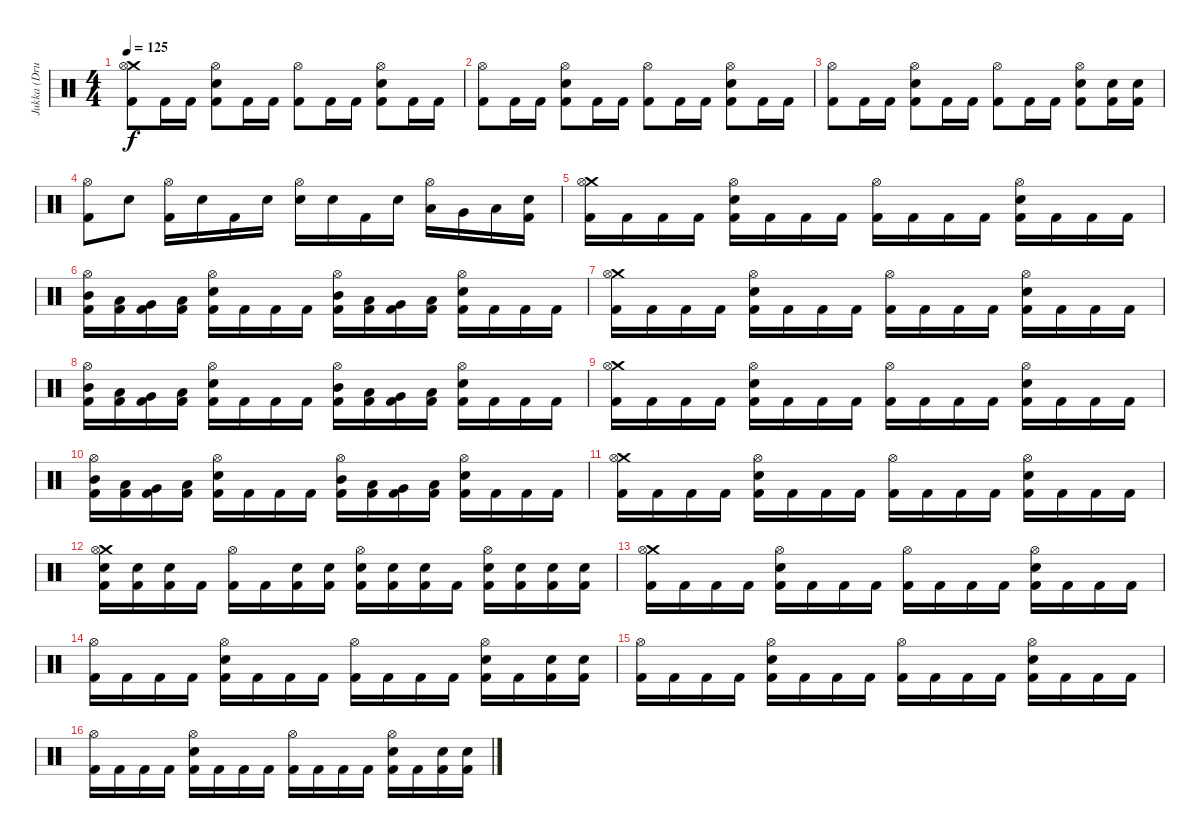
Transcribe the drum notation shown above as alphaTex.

\track ("Jukka (Drums)" "Jukka (Dru") {instrument percussion}
\staff {score}
\articulation defaults
\ts (4 4)
\tempo 125
\clef neutral
\ks c
("Crash medium (hit)" "Hi-Hat (open)" "Kick (hit) 2").8{dy f} "Kick (hit) 2".16 "Kick (hit) 2".16 ("Hi-Hat (open)" "Electric Snare (hit)" "Kick (hit) 2").8 "Kick (hit) 2".16 "Kick (hit) 2".16 ("Hi-Hat (open)" "Kick (hit) 2").8 "Kick (hit) 2".16 "Kick (hit) 2".16 ("Hi-Hat (open)" "Electric Snare (hit)" "Kick (hit) 2").8 "Kick (hit) 2".16 "Kick (hit) 2".16 |
("Hi-Hat (open)" "Kick (hit) 2").8 "Kick (hit) 2".16 "Kick (hit) 2".16 ("Hi-Hat (open)" "Electric Snare (hit)" "Kick (hit) 2").8 "Kick (hit) 2".16 "Kick (hit) 2".16 ("Hi-Hat (open)" "Kick (hit) 2").8 "Kick (hit) 2".16 "Kick (hit) 2".16 ("Hi-Hat (open)" "Electric Snare (hit)" "Kick (hit) 2").8 "Kick (hit) 2".16 "Kick (hit) 2".16 |
("Hi-Hat (open)" "Kick (hit) 2").8 "Kick (hit) 2".16 "Kick (hit) 2".16 ("Hi-Hat (open)" "Electric Snare (hit)" "Kick (hit) 2").8 "Kick (hit) 2".16 "Kick (hit) 2".16 ("Hi-Hat (open)" "Kick (hit) 2").8 "Kick (hit) 2".16 "Kick (hit) 2".16 ("Hi-Hat (open)" "Electric Snare (hit)" "Kick (hit) 2").8 ("Electric Snare (hit)" "Kick (hit) 2").16 ("Electric Snare (hit)" "Kick (hit) 2").16 |
("Hi-Hat (open)" "Kick (hit) 2").8 "Electric Snare (hit)".8 ("Hi-Hat (open)" "Kick (hit) 2").16 "Electric Snare (hit)".16 "Kick (hit) 2".16 "Electric Snare (hit)".16 ("Hi-Hat (open)" "Electric Snare (hit)").16 "Electric Snare (hit)".16 "Kick (hit) 2".16 "Electric Snare (hit)".16 ("Hi-Hat (open)" "Low Tom (hit)").16 "Very Low Tom (hit)".16 "Low Floor Tom (hit)".16 ("Electric Snare (hit)" "Kick (hit) 2").16 |
("Crash medium (hit)" "Hi-Hat (open)" "Kick (hit) 2").16 "Kick (hit) 2".16 "Kick (hit) 2".16 "Kick (hit) 2".16 ("Hi-Hat (open)" "Electric Snare (hit)" "Kick (hit) 2").16 "Kick (hit) 2".16 "Kick (hit) 2".16 "Kick (hit) 2".16 ("Hi-Hat (open)" "Kick (hit) 2").16 "Kick (hit) 2".16 "Kick (hit) 2".16 "Kick (hit) 2".16 ("Hi-Hat (open)" "Electric Snare (hit)" "Kick (hit) 2").16 "Kick (hit) 2".16 "Kick (hit) 2".16 "Kick (hit) 2".16 |
("Hi-Hat (open)" "Mid Tom (hit)" "Kick (hit) 2").16 ("Low Tom (hit)" "Kick (hit) 2").16 ("Very Low Tom (hit)" "Kick (hit) 2").16 ("Low Floor Tom (hit)" "Kick (hit) 2").16 ("Hi-Hat (open)" "Electric Snare (hit)" "Kick (hit) 2").16 "Kick (hit) 2".16 "Kick (hit) 2".16 "Kick (hit) 2".16 ("Hi-Hat (open)" "Mid Tom (hit)" "Kick (hit) 2").16 ("Low Tom (hit)" "Kick (hit) 2").16 ("Very Low Tom (hit)" "Kick (hit) 2").16 ("Low Floor Tom (hit)" "Kick (hit) 2").16 ("Hi-Hat (open)" "Electric Snare (hit)" "Kick (hit) 2").16 "Kick (hit) 2".16 "Kick (hit) 2".16 "Kick (hit) 2".16 |
("Crash medium (hit)" "Hi-Hat (open)" "Kick (hit) 2").16 "Kick (hit) 2".16 "Kick (hit) 2".16 "Kick (hit) 2".16 ("Hi-Hat (open)" "Electric Snare (hit)" "Kick (hit) 2").16 "Kick (hit) 2".16 "Kick (hit) 2".16 "Kick (hit) 2".16 ("Hi-Hat (open)" "Kick (hit) 2").16 "Kick (hit) 2".16 "Kick (hit) 2".16 "Kick (hit) 2".16 ("Hi-Hat (open)" "Electric Snare (hit)" "Kick (hit) 2").16 "Kick (hit) 2".16 "Kick (hit) 2".16 "Kick (hit) 2".16 |
("Hi-Hat (open)" "Mid Tom (hit)" "Kick (hit) 2").16 ("Low Tom (hit)" "Kick (hit) 2").16 ("Very Low Tom (hit)" "Kick (hit) 2").16 ("Low Floor Tom (hit)" "Kick (hit) 2").16 ("Hi-Hat (open)" "Electric Snare (hit)" "Kick (hit) 2").16 "Kick (hit) 2".16 "Kick (hit) 2".16 "Kick (hit) 2".16 ("Hi-Hat (open)" "Mid Tom (hit)" "Kick (hit) 2").16 ("Low Tom (hit)" "Kick (hit) 2").16 ("Very Low Tom (hit)" "Kick (hit) 2").16 ("Low Floor Tom (hit)" "Kick (hit) 2").16 ("Hi-Hat (open)" "Electric Snare (hit)" "Kick (hit) 2").16 "Kick (hit) 2".16 "Kick (hit) 2".16 "Kick (hit) 2".16 |
("Crash medium (hit)" "Hi-Hat (open)" "Kick (hit) 2").16 "Kick (hit) 2".16 "Kick (hit) 2".16 "Kick (hit) 2".16 ("Hi-Hat (open)" "Electric Snare (hit)" "Kick (hit) 2").16 "Kick (hit) 2".16 "Kick (hit) 2".16 "Kick (hit) 2".16 ("Hi-Hat (open)" "Kick (hit) 2").16 "Kick (hit) 2".16 "Kick (hit) 2".16 "Kick (hit) 2".16 ("Hi-Hat (open)" "Electric Snare (hit)" "Kick (hit) 2").16 "Kick (hit) 2".16 "Kick (hit) 2".16 "Kick (hit) 2".16 |
("Hi-Hat (open)" "Mid Tom (hit)" "Kick (hit) 2").16 ("Low Tom (hit)" "Kick (hit) 2").16 ("Very Low Tom (hit)" "Kick (hit) 2").16 ("Low Floor Tom (hit)" "Kick (hit) 2").16 ("Hi-Hat (open)" "Electric Snare (hit)" "Kick (hit) 2").16 "Kick (hit) 2".16 "Kick (hit) 2".16 "Kick (hit) 2".16 ("Hi-Hat (open)" "Mid Tom (hit)" "Kick (hit) 2").16 ("Low Tom (hit)" "Kick (hit) 2").16 ("Very Low Tom (hit)" "Kick (hit) 2").16 ("Low Floor Tom (hit)" "Kick (hit) 2").16 ("Hi-Hat (open)" "Electric Snare (hit)" "Kick (hit) 2").16 "Kick (hit) 2".16 "Kick (hit) 2".16 "Kick (hit) 2".16 |
("Crash medium (hit)" "Hi-Hat (open)" "Kick (hit) 2").16 "Kick (hit) 2".16 "Kick (hit) 2".16 "Kick (hit) 2".16 ("Hi-Hat (open)" "Electric Snare (hit)" "Kick (hit) 2").16 "Kick (hit) 2".16 "Kick (hit) 2".16 "Kick (hit) 2".16 ("Hi-Hat (open)" "Kick (hit) 2").16 "Kick (hit) 2".16 "Kick (hit) 2".16 "Kick (hit) 2".16 ("Hi-Hat (open)" "Electric Snare (hit)" "Kick (hit) 2").16 "Kick (hit) 2".16 "Kick (hit) 2".16 "Kick (hit) 2".16 |
("Crash medium (hit)" "Hi-Hat (open)" "Electric Snare (hit)" "Kick (hit) 2").16 ("Electric Snare (hit)" "Kick (hit) 2").16 ("Electric Snare (hit)" "Kick (hit) 2").16 "Kick (hit) 2".16 ("Hi-Hat (open)" "Kick (hit) 2").16 "Kick (hit) 2".16 ("Electric Snare (hit)" "Kick (hit) 2").16 ("Electric Snare (hit)" "Kick (hit) 2").16 ("Hi-Hat (open)" "Electric Snare (hit)" "Kick (hit) 2").16 ("Electric Snare (hit)" "Kick (hit) 2").16 ("Electric Snare (hit)" "Kick (hit) 2").16 "Kick (hit) 2".16 ("Hi-Hat (open)" "Electric Snare (hit)" "Kick (hit) 2").16 ("Electric Snare (hit)" "Kick (hit) 2").16 ("Electric Snare (hit)" "Kick (hit) 2").16 ("Electric Snare (hit)" "Kick (hit) 2").16 |
("Crash medium (hit)" "Hi-Hat (open)" "Kick (hit) 2").16 "Kick (hit) 2".16 "Kick (hit) 2".16 "Kick (hit) 2".16 ("Hi-Hat (open)" "Electric Snare (hit)" "Kick (hit) 2").16 "Kick (hit) 2".16 "Kick (hit) 2".16 "Kick (hit) 2".16 ("Hi-Hat (open)" "Kick (hit) 2").16 "Kick (hit) 2".16 "Kick (hit) 2".16 "Kick (hit) 2".16 ("Hi-Hat (open)" "Electric Snare (hit)" "Kick (hit) 2").16 "Kick (hit) 2".16 "Kick (hit) 2".16 "Kick (hit) 2".16 |
("Hi-Hat (open)" "Kick (hit) 2").16 "Kick (hit) 2".16 "Kick (hit) 2".16 "Kick (hit) 2".16 ("Hi-Hat (open)" "Electric Snare (hit)" "Kick (hit) 2").16 "Kick (hit) 2".16 "Kick (hit) 2".16 "Kick (hit) 2".16 ("Hi-Hat (open)" "Kick (hit) 2").16 "Kick (hit) 2".16 "Kick (hit) 2".16 "Kick (hit) 2".16 ("Hi-Hat (open)" "Electric Snare (hit)" "Kick (hit) 2").16 "Kick (hit) 2".16 ("Electric Snare (hit)" "Kick (hit) 2").16 ("Electric Snare (hit)" "Kick (hit) 2").16 |
("Hi-Hat (open)" "Kick (hit) 2").16 "Kick (hit) 2".16 "Kick (hit) 2".16 "Kick (hit) 2".16 ("Hi-Hat (open)" "Electric Snare (hit)" "Kick (hit) 2").16 "Kick (hit) 2".16 "Kick (hit) 2".16 "Kick (hit) 2".16 ("Hi-Hat (open)" "Kick (hit) 2").16 "Kick (hit) 2".16 "Kick (hit) 2".16 "Kick (hit) 2".16 ("Hi-Hat (open)" "Electric Snare (hit)" "Kick (hit) 2").16 "Kick (hit) 2".16 "Kick (hit) 2".16 "Kick (hit) 2".16 |
("Hi-Hat (open)" "Kick (hit) 2").16 "Kick (hit) 2".16 "Kick (hit) 2".16 "Kick (hit) 2".16 ("Hi-Hat (open)" "Electric Snare (hit)" "Kick (hit) 2").16 "Kick (hit) 2".16 "Kick (hit) 2".16 "Kick (hit) 2".16 ("Hi-Hat (open)" "Kick (hit) 2").16 "Kick (hit) 2".16 "Kick (hit) 2".16 "Kick (hit) 2".16 ("Hi-Hat (open)" "Electric Snare (hit)" "Kick (hit) 2").16 "Kick (hit) 2".16 ("Electric Snare (hit)" "Kick (hit) 2").16 ("Electric Snare (hit)" "Kick (hit) 2").16
